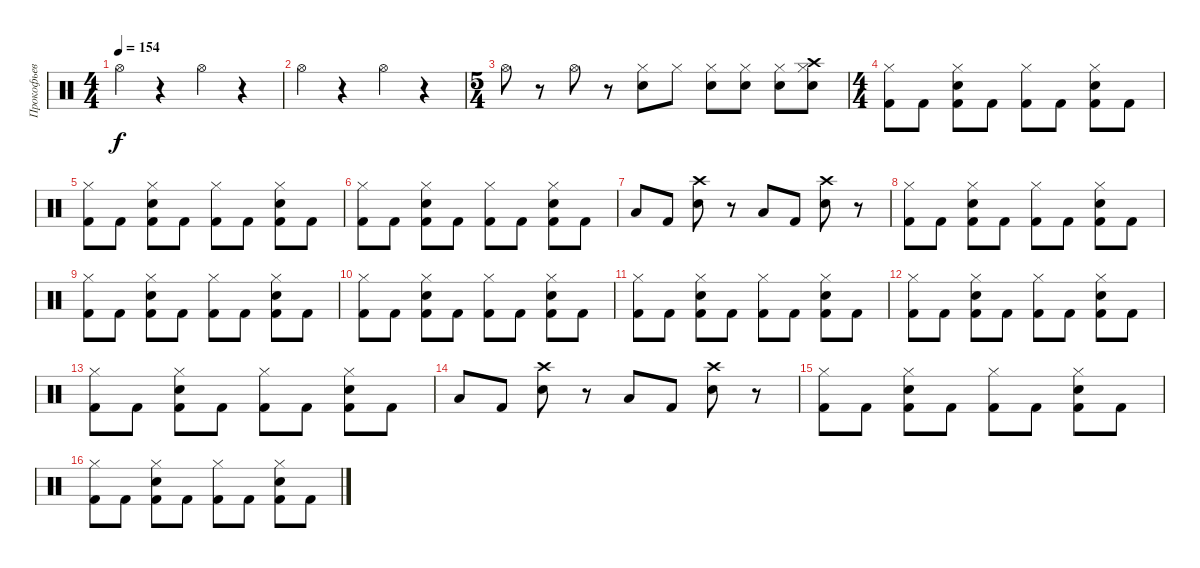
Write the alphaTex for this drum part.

\track ("Прокофьев" "Прокофьев") {instrument percussion}
\staff {score}
\articulation defaults
\ts (4 4)
\tempo 154
\clef neutral
\ks c "Hi-Hat (open)".4{dy f}
r.4 "Hi-Hat (open)".4 r.4 |
"Hi-Hat (open)".4 r.4 "Hi-Hat (open)".4 r.4 |
\ts (5 4)
"Hi-Hat (open)".8 r.8 "Hi-Hat (open)".8 r.8 ("Hi-Hat (closed)" "Snare (hit) 2").8 "Hi-Hat (closed)".8 ("Hi-Hat (closed)" "Snare (hit) 2").8 ("Hi-Hat (closed)" "Snare (hit) 2").8 ("Hi-Hat (closed)" "Snare (hit) 2").8 ("Hi-Hat (closed)" "Snare (hit) 2" "Crash high (hit)").8 |
\ts (4 4)
("Hi-Hat (closed)" "Kick (hit) 2").8 "Kick (hit) 2".8 ("Hi-Hat (closed)" "Snare (hit) 2" "Kick (hit) 2").8 "Kick (hit) 2".8 ("Hi-Hat (closed)" "Kick (hit) 2").8 "Kick (hit) 2".8 ("Hi-Hat (closed)" "Snare (hit) 2" "Kick (hit) 2").8 "Kick (hit) 2".8 |
("Hi-Hat (closed)" "Kick (hit) 2").8 "Kick (hit) 2".8 ("Hi-Hat (closed)" "Snare (hit) 2" "Kick (hit) 2").8 "Kick (hit) 2".8 ("Hi-Hat (closed)" "Kick (hit) 2").8 "Kick (hit) 2".8 ("Hi-Hat (closed)" "Snare (hit) 2" "Kick (hit) 2").8 "Kick (hit) 2".8 |
("Hi-Hat (closed)" "Kick (hit) 2").8 "Kick (hit) 2".8 ("Hi-Hat (closed)" "Snare (hit) 2" "Kick (hit) 2").8 "Kick (hit) 2".8 ("Hi-Hat (closed)" "Kick (hit) 2").8 "Kick (hit) 2".8 ("Hi-Hat (closed)" "Snare (hit) 2" "Kick (hit) 2").8 "Kick (hit) 2".8 |
"Low Tom (hit)".8 "Kick (hit) 2".8 ("Crash high (hit)" "Electric Snare (hit)").8 r.8 "Low Tom (hit)".8 "Kick (hit) 2".8 ("Crash high (hit)" "Electric Snare (hit)").8 r.8 |
("Hi-Hat (closed)" "Kick (hit) 2").8 "Kick (hit) 2".8 ("Hi-Hat (closed)" "Snare (hit) 2" "Kick (hit) 2").8 "Kick (hit) 2".8 ("Hi-Hat (closed)" "Kick (hit) 2").8 "Kick (hit) 2".8 ("Hi-Hat (closed)" "Snare (hit) 2" "Kick (hit) 2").8 "Kick (hit) 2".8 |
("Hi-Hat (closed)" "Kick (hit) 2").8 "Kick (hit) 2".8 ("Hi-Hat (closed)" "Snare (hit) 2" "Kick (hit) 2").8 "Kick (hit) 2".8 ("Hi-Hat (closed)" "Kick (hit) 2").8 "Kick (hit) 2".8 ("Hi-Hat (closed)" "Snare (hit) 2" "Kick (hit) 2").8 "Kick (hit) 2".8 |
("Hi-Hat (closed)" "Kick (hit) 2").8 "Kick (hit) 2".8 ("Hi-Hat (closed)" "Snare (hit) 2" "Kick (hit) 2").8 "Kick (hit) 2".8 ("Hi-Hat (closed)" "Kick (hit) 2").8 "Kick (hit) 2".8 ("Hi-Hat (closed)" "Snare (hit) 2" "Kick (hit) 2").8 "Kick (hit) 2".8 |
("Hi-Hat (closed)" "Kick (hit) 2").8 "Kick (hit) 2".8 ("Hi-Hat (closed)" "Snare (hit) 2" "Kick (hit) 2").8 "Kick (hit) 2".8 ("Hi-Hat (closed)" "Kick (hit) 2").8 "Kick (hit) 2".8 ("Hi-Hat (closed)" "Snare (hit) 2" "Kick (hit) 2").8 "Kick (hit) 2".8 |
("Hi-Hat (closed)" "Kick (hit) 2").8 "Kick (hit) 2".8 ("Hi-Hat (closed)" "Snare (hit) 2" "Kick (hit) 2").8 "Kick (hit) 2".8 ("Hi-Hat (closed)" "Kick (hit) 2").8 "Kick (hit) 2".8 ("Hi-Hat (closed)" "Snare (hit) 2" "Kick (hit) 2").8 "Kick (hit) 2".8 |
("Hi-Hat (closed)" "Kick (hit) 2").8 "Kick (hit) 2".8 ("Hi-Hat (closed)" "Snare (hit) 2" "Kick (hit) 2").8 "Kick (hit) 2".8 ("Hi-Hat (closed)" "Kick (hit) 2").8 "Kick (hit) 2".8 ("Hi-Hat (closed)" "Snare (hit) 2" "Kick (hit) 2").8 "Kick (hit) 2".8 |
"Low Tom (hit)".8 "Kick (hit) 2".8 ("Crash high (hit)" "Electric Snare (hit)").8 r.8 "Low Tom (hit)".8 "Kick (hit) 2".8 ("Crash high (hit)" "Electric Snare (hit)").8 r.8 |
("Hi-Hat (closed)" "Kick (hit) 2").8 "Kick (hit) 2".8 ("Hi-Hat (closed)" "Snare (hit) 2" "Kick (hit) 2").8 "Kick (hit) 2".8 ("Hi-Hat (closed)" "Kick (hit) 2").8 "Kick (hit) 2".8 ("Hi-Hat (closed)" "Snare (hit) 2" "Kick (hit) 2").8 "Kick (hit) 2".8 |
("Hi-Hat (closed)" "Kick (hit) 2").8 "Kick (hit) 2".8 ("Hi-Hat (closed)" "Snare (hit) 2" "Kick (hit) 2").8 "Kick (hit) 2".8 ("Hi-Hat (closed)" "Kick (hit) 2").8 "Kick (hit) 2".8 ("Hi-Hat (closed)" "Snare (hit) 2" "Kick (hit) 2").8 "Kick (hit) 2".8
